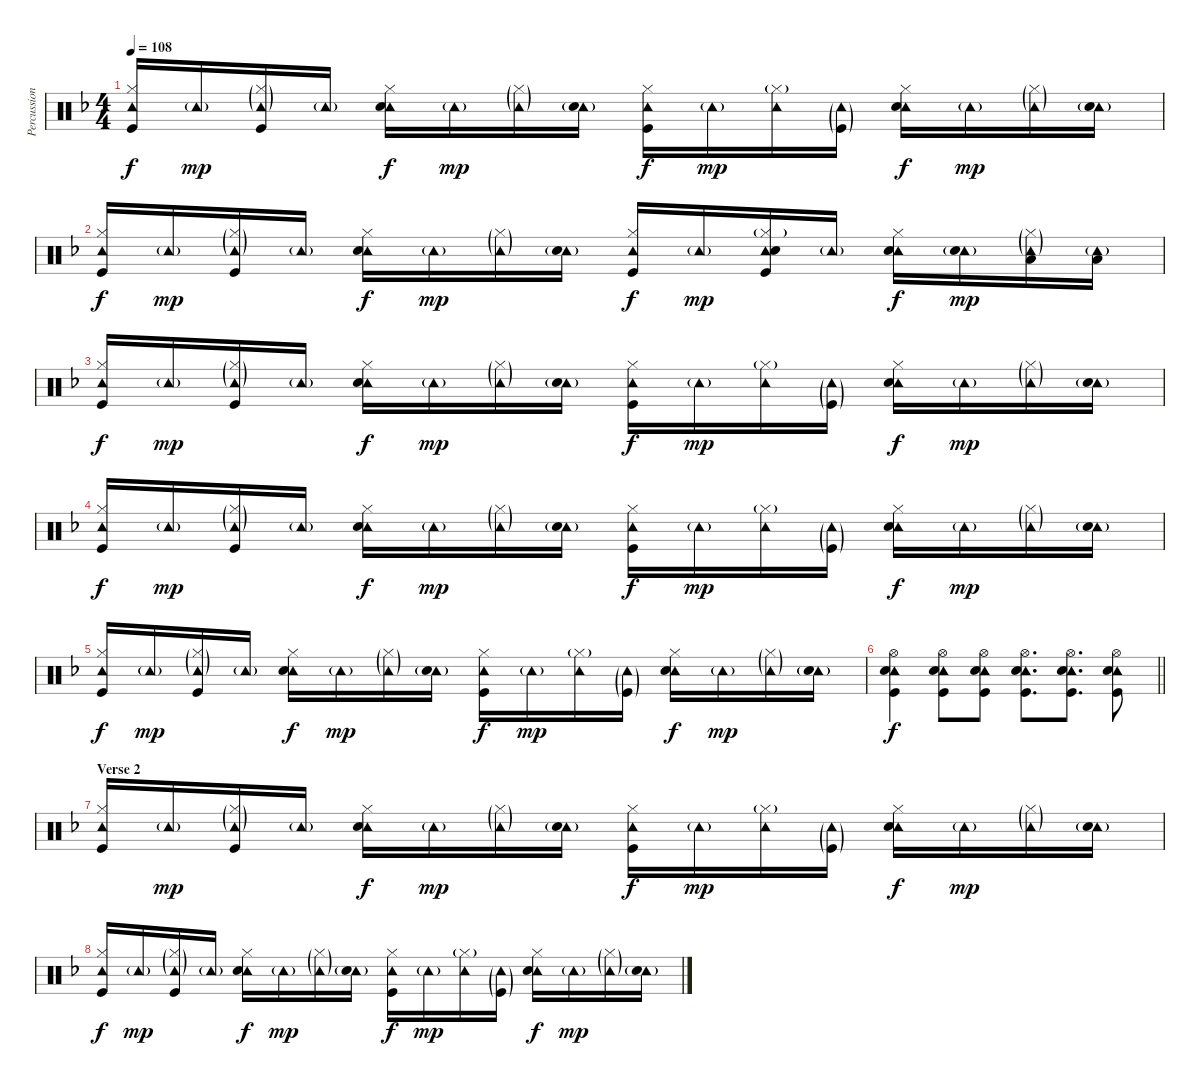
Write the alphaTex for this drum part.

\track ("Percussion" "Percussion") {instrument percussion}
\staff {score}
\articulation defaults
\ts (4 4)
\tempo 108
\clef neutral
\ks f
("Tambourine (hit)" "Hi-Hat (closed)" "Kick (hit)").16{dy f} "Tambourine (hit)"{g}.16{dy mp} ("Tambourine (hit)"{g} "Hi-Hat (closed)"{g} "Kick (hit)").16 "Tambourine (hit)"{g}.16 ("Tambourine (hit)" "Hi-Hat (closed)" "Snare (hit) 2").16{dy f} "Tambourine (hit)"{g}.16{dy mp} ("Tambourine (hit)"{g} "Hi-Hat (closed)"{g}).16 ("Tambourine (hit)"{g} "Snare (hit) 2"{g}).16 ("Tambourine (hit)" "Hi-Hat (closed)" "Kick (hit)").16{dy f} "Tambourine (hit)"{g}.16{dy mp} ("Tambourine (hit)" "Hi-Hat (closed)"{g}).16 ("Tambourine (hit)"{g} "Kick (hit)"{g}).16 ("Tambourine (hit)" "Hi-Hat (closed)" "Snare (hit) 2").16{dy f} "Tambourine (hit)"{g}.16{dy mp} ("Tambourine (hit)"{g} "Hi-Hat (closed)"{g}).16 ("Tambourine (hit)"{g} "Snare (hit) 2"{g}).16 |
("Tambourine (hit)" "Hi-Hat (closed)" "Kick (hit)").16{dy f} "Tambourine (hit)"{g}.16{dy mp} ("Tambourine (hit)"{g} "Hi-Hat (closed)"{g} "Kick (hit)").16 "Tambourine (hit)"{g}.16 ("Tambourine (hit)" "Hi-Hat (closed)" "Snare (hit) 2").16{dy f} "Tambourine (hit)"{g}.16{dy mp} ("Tambourine (hit)"{g} "Hi-Hat (closed)"{g}).16 ("Tambourine (hit)"{g} "Snare (hit) 2"{g}).16 ("Tambourine (hit)" "Hi-Hat (closed)" "Kick (hit)").16{dy f} "Tambourine (hit)"{g}.16{dy mp} ("Tambourine (hit)" "Hi-Hat (closed)"{g} "Snare (hit) 2" "Kick (hit)").16 "Tambourine (hit)"{g}.16 ("Tambourine (hit)" "Hi-Hat (closed)" "Snare (hit) 2").16{dy f} ("Tambourine (hit)"{g} "Snare (hit) 2").16{dy mp} ("Tambourine (hit)"{g} "Hi-Hat (closed)"{g} "Low Tom (hit)").16 ("Tambourine (hit)"{g} "Low Tom (hit)").16 |
("Tambourine (hit)" "Hi-Hat (closed)" "Kick (hit)").16{dy f} "Tambourine (hit)"{g}.16{dy mp} ("Tambourine (hit)"{g} "Hi-Hat (closed)"{g} "Kick (hit)").16 "Tambourine (hit)"{g}.16 ("Tambourine (hit)" "Hi-Hat (closed)" "Snare (hit) 2").16{dy f} "Tambourine (hit)"{g}.16{dy mp} ("Tambourine (hit)"{g} "Hi-Hat (closed)"{g}).16 ("Tambourine (hit)"{g} "Snare (hit) 2"{g}).16 ("Tambourine (hit)" "Hi-Hat (closed)" "Kick (hit)").16{dy f} "Tambourine (hit)"{g}.16{dy mp} ("Tambourine (hit)" "Hi-Hat (closed)"{g}).16 ("Tambourine (hit)"{g} "Kick (hit)"{g}).16 ("Tambourine (hit)" "Hi-Hat (closed)" "Snare (hit) 2").16{dy f} "Tambourine (hit)"{g}.16{dy mp} ("Tambourine (hit)"{g} "Hi-Hat (closed)"{g}).16 ("Tambourine (hit)"{g} "Snare (hit) 2"{g}).16 |
("Tambourine (hit)" "Hi-Hat (closed)" "Kick (hit)").16{dy f} "Tambourine (hit)"{g}.16{dy mp} ("Tambourine (hit)"{g} "Hi-Hat (closed)"{g} "Kick (hit)").16 "Tambourine (hit)"{g}.16 ("Tambourine (hit)" "Hi-Hat (closed)" "Snare (hit) 2").16{dy f} "Tambourine (hit)"{g}.16{dy mp} ("Tambourine (hit)"{g} "Hi-Hat (closed)"{g}).16 ("Tambourine (hit)"{g} "Snare (hit) 2"{g}).16 ("Tambourine (hit)" "Hi-Hat (closed)" "Kick (hit)").16{dy f} "Tambourine (hit)"{g}.16{dy mp} ("Tambourine (hit)" "Hi-Hat (closed)"{g}).16 ("Tambourine (hit)"{g} "Kick (hit)"{g}).16 ("Tambourine (hit)" "Hi-Hat (closed)" "Snare (hit) 2").16{dy f} "Tambourine (hit)"{g}.16{dy mp} ("Tambourine (hit)"{g} "Hi-Hat (closed)"{g}).16 ("Tambourine (hit)"{g} "Snare (hit) 2"{g}).16 |
("Tambourine (hit)" "Hi-Hat (closed)" "Kick (hit)").16{dy f} "Tambourine (hit)"{g}.16{dy mp} ("Tambourine (hit)"{g} "Hi-Hat (closed)"{g} "Kick (hit)").16 "Tambourine (hit)"{g}.16 ("Tambourine (hit)" "Hi-Hat (closed)" "Snare (hit) 2").16{dy f} "Tambourine (hit)"{g}.16{dy mp} ("Tambourine (hit)"{g} "Hi-Hat (closed)"{g}).16 ("Tambourine (hit)"{g} "Snare (hit) 2"{g}).16 ("Tambourine (hit)" "Hi-Hat (closed)" "Kick (hit)").16{dy f} "Tambourine (hit)"{g}.16{dy mp} ("Tambourine (hit)" "Hi-Hat (closed)"{g}).16 ("Tambourine (hit)"{g} "Kick (hit)"{g}).16 ("Tambourine (hit)" "Hi-Hat (closed)" "Snare (hit) 2").16{dy f} "Tambourine (hit)"{g}.16{dy mp} ("Tambourine (hit)"{g} "Hi-Hat (closed)"{g}).16 ("Tambourine (hit)"{g} "Snare (hit) 2"{g}).16 |
\barLineRight lightlight
("Tambourine (hit)" "Hi-Hat (open)" "Snare (hit) 2" "Kick (hit)").4{dy f} ("Tambourine (hit)" "Hi-Hat (open)" "Snare (hit) 2" "Kick (hit)").8 ("Tambourine (hit)" "Hi-Hat (open)" "Snare (hit) 2" "Kick (hit)").8 ("Tambourine (hit)" "Hi-Hat (open)" "Snare (hit) 2" "Kick (hit)").8{d} ("Tambourine (hit)" "Hi-Hat (open)" "Snare (hit) 2" "Kick (hit)").8{d} ("Tambourine (hit)" "Hi-Hat (open)" "Snare (hit) 2" "Kick (hit)").8 |
\section ("" "Verse 2")
("Tambourine (hit)" "Hi-Hat (closed)" "Kick (hit)").16 "Tambourine (hit)"{g}.16{dy mp} ("Tambourine (hit)"{g} "Hi-Hat (closed)"{g} "Kick (hit)").16 "Tambourine (hit)"{g}.16 ("Tambourine (hit)" "Hi-Hat (closed)" "Snare (hit) 2").16{dy f} "Tambourine (hit)"{g}.16{dy mp} ("Tambourine (hit)"{g} "Hi-Hat (closed)"{g}).16 ("Tambourine (hit)"{g} "Snare (hit) 2"{g}).16 ("Tambourine (hit)" "Hi-Hat (closed)" "Kick (hit)").16{dy f} "Tambourine (hit)"{g}.16{dy mp} ("Tambourine (hit)" "Hi-Hat (closed)"{g}).16 ("Tambourine (hit)"{g} "Kick (hit)"{g}).16 ("Tambourine (hit)" "Hi-Hat (closed)" "Snare (hit) 2").16{dy f} "Tambourine (hit)"{g}.16{dy mp} ("Tambourine (hit)"{g} "Hi-Hat (closed)"{g}).16 ("Tambourine (hit)"{g} "Snare (hit) 2"{g}).16 |
("Tambourine (hit)" "Hi-Hat (closed)" "Kick (hit)").16{dy f} "Tambourine (hit)"{g}.16{dy mp} ("Tambourine (hit)"{g} "Hi-Hat (closed)"{g} "Kick (hit)").16 "Tambourine (hit)"{g}.16 ("Tambourine (hit)" "Hi-Hat (closed)" "Snare (hit) 2").16{dy f} "Tambourine (hit)"{g}.16{dy mp} ("Tambourine (hit)"{g} "Hi-Hat (closed)"{g}).16 ("Tambourine (hit)"{g} "Snare (hit) 2"{g}).16 ("Tambourine (hit)" "Hi-Hat (closed)" "Kick (hit)").16{dy f} "Tambourine (hit)"{g}.16{dy mp} ("Tambourine (hit)" "Hi-Hat (closed)"{g}).16 ("Tambourine (hit)"{g} "Kick (hit)"{g}).16 ("Tambourine (hit)" "Hi-Hat (closed)" "Snare (hit) 2").16{dy f} "Tambourine (hit)"{g}.16{dy mp} ("Tambourine (hit)"{g} "Hi-Hat (closed)"{g}).16 ("Tambourine (hit)"{g} "Snare (hit) 2"{g}).16
